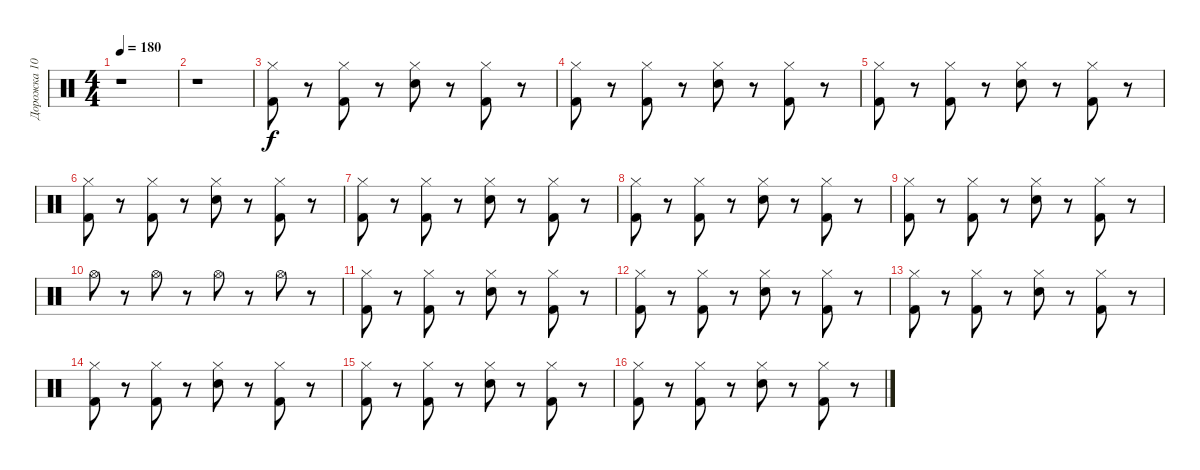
\track ("Дорожка 10" "Дорожка 10") {instrument percussion}
\staff {score}
\articulation defaults
\ts (4 4)
\tempo 180
\clef neutral
\ks c
r.1{dy f} |
r.1 |
("Kick (hit) 2" "Hi-Hat (closed)").8 r.8 ("Kick (hit) 2" "Hi-Hat (closed)").8 r.8 ("Snare (hit) 2" "Hi-Hat (closed)").8 r.8 ("Kick (hit) 2" "Hi-Hat (closed)").8 r.8 |
("Kick (hit) 2" "Hi-Hat (closed)").8 r.8 ("Kick (hit) 2" "Hi-Hat (closed)").8 r.8 ("Snare (hit) 2" "Hi-Hat (closed)").8 r.8 ("Kick (hit) 2" "Hi-Hat (closed)").8 r.8 |
("Kick (hit) 2" "Hi-Hat (closed)").8 r.8 ("Kick (hit) 2" "Hi-Hat (closed)").8 r.8 ("Snare (hit) 2" "Hi-Hat (closed)").8 r.8 ("Kick (hit) 2" "Hi-Hat (closed)").8 r.8 |
("Kick (hit) 2" "Hi-Hat (closed)").8 r.8 ("Kick (hit) 2" "Hi-Hat (closed)").8 r.8 ("Snare (hit) 2" "Hi-Hat (closed)").8 r.8 ("Kick (hit) 2" "Hi-Hat (closed)").8 r.8 |
("Kick (hit) 2" "Hi-Hat (closed)").8 r.8 ("Kick (hit) 2" "Hi-Hat (closed)").8 r.8 ("Snare (hit) 2" "Hi-Hat (closed)").8 r.8 ("Kick (hit) 2" "Hi-Hat (closed)").8 r.8 |
("Kick (hit) 2" "Hi-Hat (closed)").8 r.8 ("Kick (hit) 2" "Hi-Hat (closed)").8 r.8 ("Snare (hit) 2" "Hi-Hat (closed)").8 r.8 ("Kick (hit) 2" "Hi-Hat (closed)").8 r.8 |
("Kick (hit) 2" "Hi-Hat (closed)").8 r.8 ("Kick (hit) 2" "Hi-Hat (closed)").8 r.8 ("Snare (hit) 2" "Hi-Hat (closed)").8 r.8 ("Kick (hit) 2" "Hi-Hat (closed)").8 r.8 |
"Hi-Hat (open)".8 r.8 "Hi-Hat (open)".8 r.8 "Hi-Hat (open)".8 r.8 "Hi-Hat (open)".8 r.8 |
("Kick (hit) 2" "Hi-Hat (closed)").8 r.8 ("Kick (hit) 2" "Hi-Hat (closed)").8 r.8 ("Snare (hit) 2" "Hi-Hat (closed)").8 r.8 ("Kick (hit) 2" "Hi-Hat (closed)").8 r.8 |
("Kick (hit) 2" "Hi-Hat (closed)").8 r.8 ("Kick (hit) 2" "Hi-Hat (closed)").8 r.8 ("Snare (hit) 2" "Hi-Hat (closed)").8 r.8 ("Kick (hit) 2" "Hi-Hat (closed)").8 r.8 |
("Kick (hit) 2" "Hi-Hat (closed)").8 r.8 ("Kick (hit) 2" "Hi-Hat (closed)").8 r.8 ("Snare (hit) 2" "Hi-Hat (closed)").8 r.8 ("Kick (hit) 2" "Hi-Hat (closed)").8 r.8 |
("Kick (hit) 2" "Hi-Hat (closed)").8 r.8 ("Kick (hit) 2" "Hi-Hat (closed)").8 r.8 ("Snare (hit) 2" "Hi-Hat (closed)").8 r.8 ("Kick (hit) 2" "Hi-Hat (closed)").8 r.8 |
("Kick (hit) 2" "Hi-Hat (closed)").8 r.8 ("Kick (hit) 2" "Hi-Hat (closed)").8 r.8 ("Snare (hit) 2" "Hi-Hat (closed)").8 r.8 ("Kick (hit) 2" "Hi-Hat (closed)").8 r.8 |
("Kick (hit) 2" "Hi-Hat (closed)").8 r.8 ("Kick (hit) 2" "Hi-Hat (closed)").8 r.8 ("Snare (hit) 2" "Hi-Hat (closed)").8 r.8 ("Kick (hit) 2" "Hi-Hat (closed)").8 r.8
